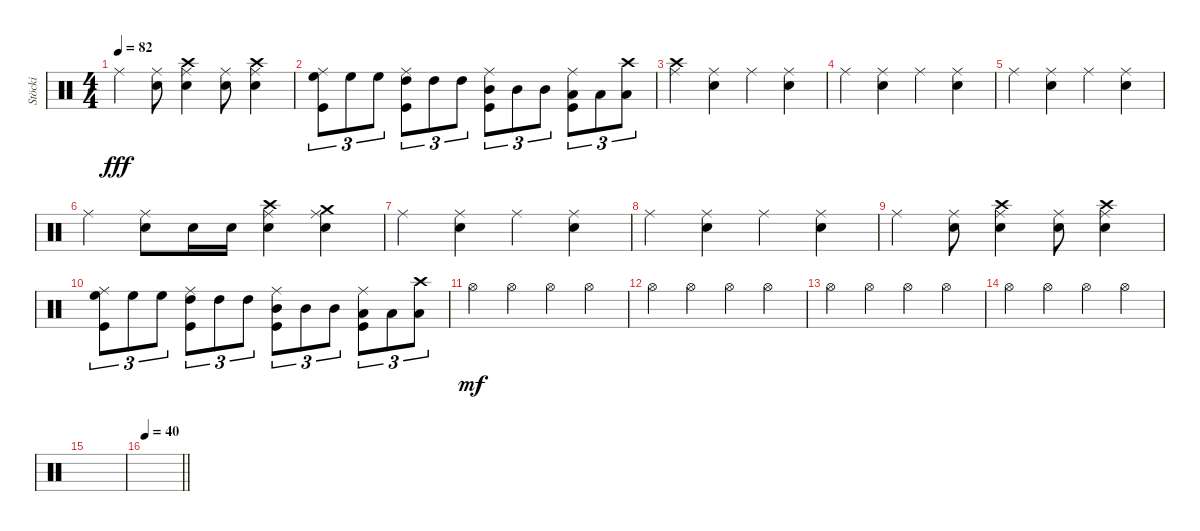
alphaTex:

\track ("Stöcki" "Stöcki") {instrument percussion}
\staff {score}
\articulation defaults
\ts (4 4)
\tempo 82
\clef neutral
\ks c "Ride (middle)".4{dy fff}
("Ride (middle)" "Snare (hit) 2").8 ("Ride (middle)" "Snare (hit) 2" "Crash high (hit)").4 ("Ride (middle)" "Snare (hit) 2").8 ("Ride (middle)" "Snare (hit) 2" "Crash high (hit)").4 |
("High Floor Tom (hit)" "Kick (hit)" "Ride (middle)").8{tu (3 2)} "High Floor Tom (hit)".8{tu (3 2)} "High Floor Tom (hit)".8{tu (3 2)} ("High Tom (hit)" "Kick (hit)" "Ride (middle)").8{tu (3 2)} "High Tom (hit)".8{tu (3 2)} "High Tom (hit)".8{tu (3 2)} ("Mid Tom (hit)" "Kick (hit)" "Ride (middle)").8{tu (3 2)} "Mid Tom (hit)".8{tu (3 2)} "Mid Tom (hit)".8{tu (3 2)} ("Low Tom (hit)" "Kick (hit)" "Ride (middle)").8{tu (3 2)} "Low Tom (hit)".8{tu (3 2)} ("Low Tom (hit)" "Crash high (hit)").8{tu (3 2)} |
("Ride (middle)" "Crash high (hit)").4 ("Ride (middle)" "Snare (hit) 2").4 "Ride (middle)".4 ("Ride (middle)" "Snare (hit) 2").4 |
"Ride (middle)".4 ("Ride (middle)" "Snare (hit) 2").4 "Ride (middle)".4 ("Ride (middle)" "Snare (hit) 2").4 |
"Ride (middle)".4 ("Ride (middle)" "Snare (hit) 2").4 "Ride (middle)".4 ("Ride (middle)" "Snare (hit) 2").4 |
"Ride (middle)".4 ("Ride (middle)" "Snare (hit) 2").8 "Snare (hit) 2".16 "Snare (hit) 2".16 ("Ride (middle)" "Snare (hit) 2" "Crash high (hit)").4 ("Ride (middle)" "Snare (hit) 2" "Crash medium (hit)").4 |
"Ride (middle)".4 ("Ride (middle)" "Snare (hit) 2").4 "Ride (middle)".4 ("Ride (middle)" "Snare (hit) 2").4 |
"Ride (middle)".4 ("Ride (middle)" "Snare (hit) 2").4 "Ride (middle)".4 ("Ride (middle)" "Snare (hit) 2").4 |
"Ride (middle)".4 ("Ride (middle)" "Snare (hit) 2").8 ("Ride (middle)" "Snare (hit) 2" "Crash high (hit)").4 ("Ride (middle)" "Snare (hit) 2").8 ("Ride (middle)" "Snare (hit) 2" "Crash high (hit)").4 |
("High Floor Tom (hit)" "Kick (hit)" "Ride (middle)").8{tu (3 2)} "High Floor Tom (hit)".8{tu (3 2)} "High Floor Tom (hit)".8{tu (3 2)} ("High Tom (hit)" "Kick (hit)" "Ride (middle)").8{tu (3 2)} "High Tom (hit)".8{tu (3 2)} "High Tom (hit)".8{tu (3 2)} ("Mid Tom (hit)" "Kick (hit)" "Ride (middle)").8{tu (3 2)} "Mid Tom (hit)".8{tu (3 2)} "Mid Tom (hit)".8{tu (3 2)} ("Low Tom (hit)" "Kick (hit)" "Ride (middle)").8{tu (3 2)} "Low Tom (hit)".8{tu (3 2)} ("Low Tom (hit)" "Crash high (hit)").8{tu (3 2)} |
"Hi-Hat (open)".4{dy mf} "Hi-Hat (open)".4 "Hi-Hat (open)".4 "Hi-Hat (open)".4 |
"Hi-Hat (open)".4 "Hi-Hat (open)".4 "Hi-Hat (open)".4 "Hi-Hat (open)".4 |
"Hi-Hat (open)".4 "Hi-Hat (open)".4 "Hi-Hat (open)".4 "Hi-Hat (open)".4 |
"Hi-Hat (open)".4 "Hi-Hat (open)".4 "Hi-Hat (open)".4 "Hi-Hat (open)".4 |
|
\tempo 40
\barLineRight lightlight
